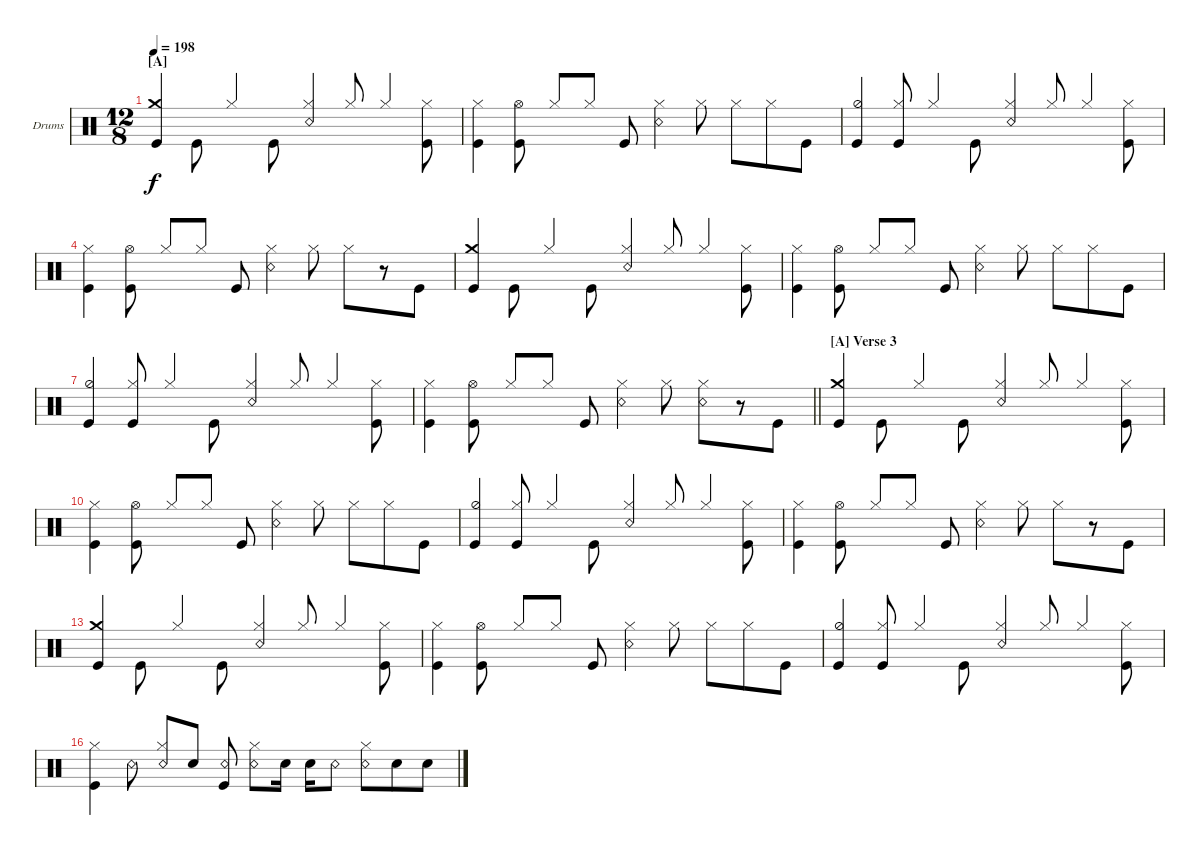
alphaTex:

\bracketExtendMode nobrackets
\firstSystemTrackNameOrientation horizontal
\otherSystemsTrackNameOrientation horizontal
\defaultBarNumberDisplay FirstOfSystem
\track ("Drumkit" "Drums") {instrument percussion}
\staff {score}
\articulation defaults
\ts (12 8)
\section ("A" "")
\tempo 198
\clef neutral
\scale
0.25
\ks c
("Kick (hit)" "Crash medium (hit)").4{dy f beam invert} "Kick (hit)".8{beam invert} "Hi-Hat (closed)".4 "Kick (hit)".8{beam invert} ("Snare (rim shot)" "Hi-Hat (closed)").4 "Hi-Hat (closed)".8{beam invert} "Hi-Hat (closed)".4{beam invert} ("Kick (hit)" "Hi-Hat (closed)").8 |
\scale
0.25 ("Kick (hit)" "Hi-Hat (closed)").4 ("Kick (hit)" "Hi-Hat (open)").8{beam split} "Hi-Hat (closed)".8 "Hi-Hat (closed)".8{beam invert beam split} "Kick (hit)".8 ("Snare (rim shot)" "Hi-Hat (closed)").4 "Hi-Hat (closed)".8{beam split} "Hi-Hat (closed)".8 "Hi-Hat (closed)".8 "Kick (hit)".8 |
\scale
0.25 ("Kick (hit)" "Hi-Hat (half)").4{beam invert} ("Kick (hit)" "Hi-Hat (closed)").8{beam invert} "Hi-Hat (closed)".4 "Kick (hit)".8{beam invert} ("Snare (rim shot)" "Hi-Hat (closed)").4 "Hi-Hat (closed)".8{beam invert} "Hi-Hat (closed)".4{beam invert} ("Kick (hit)" "Hi-Hat (closed)").8 |
\scale
0.25 ("Kick (hit)" "Hi-Hat (closed)").4 ("Kick (hit)" "Hi-Hat (open)").8{beam split} "Hi-Hat (closed)".8 "Hi-Hat (closed)".8{beam invert beam split} "Kick (hit)".8 ("Snare (rim shot)" "Hi-Hat (closed)").4 "Hi-Hat (closed)".8{beam split} "Hi-Hat (closed)".8 r.8 "Kick (hit)".8 |
\scale
0.25 ("Kick (hit)" "Crash medium (hit)").4{beam invert} "Kick (hit)".8{beam invert} "Hi-Hat (closed)".4 "Kick (hit)".8{beam invert} ("Snare (rim shot)" "Hi-Hat (closed)").4 "Hi-Hat (closed)".8{beam invert} "Hi-Hat (closed)".4{beam invert} ("Kick (hit)" "Hi-Hat (closed)").8 |
\scale
0.25 ("Kick (hit)" "Hi-Hat (closed)").4 ("Kick (hit)" "Hi-Hat (open)").8{beam split} "Hi-Hat (closed)".8 "Hi-Hat (closed)".8{beam invert beam split} "Kick (hit)".8 ("Snare (rim shot)" "Hi-Hat (closed)").4 "Hi-Hat (closed)".8{beam split} "Hi-Hat (closed)".8 "Hi-Hat (closed)".8 "Kick (hit)".8 |
\scale
0.25 ("Kick (hit)" "Hi-Hat (half)").4{beam invert} ("Kick (hit)" "Hi-Hat (closed)").8{beam invert} "Hi-Hat (closed)".4 "Kick (hit)".8{beam invert} ("Snare (rim shot)" "Hi-Hat (closed)").4 "Hi-Hat (closed)".8{beam invert} "Hi-Hat (closed)".4{beam invert} ("Kick (hit)" "Hi-Hat (closed)").8 |
\scale
0.25
\barLineRight lightlight
("Kick (hit)" "Hi-Hat (closed)").4 ("Kick (hit)" "Hi-Hat (open)").8{beam split} "Hi-Hat (closed)".8 "Hi-Hat (closed)".8{beam invert beam split} "Kick (hit)".8 ("Snare (rim shot)" "Hi-Hat (closed)").4 "Hi-Hat (closed)".8{beam split} ("Hi-Hat (closed)" "Snare (rim shot)").8 r.8 "Kick (hit)".8 |
\section ("A" "Verse 3")
("Kick (hit)" "Crash medium (hit)").4{beam invert} "Kick (hit)".8{beam invert} "Hi-Hat (closed)".4 "Kick (hit)".8{beam invert} ("Snare (rim shot)" "Hi-Hat (closed)").4 "Hi-Hat (closed)".8{beam invert} "Hi-Hat (closed)".4{beam invert} ("Kick (hit)" "Hi-Hat (closed)").8 |
("Kick (hit)" "Hi-Hat (closed)").4 ("Kick (hit)" "Hi-Hat (open)").8{beam split} "Hi-Hat (closed)".8 "Hi-Hat (closed)".8{beam invert beam split} "Kick (hit)".8 ("Snare (rim shot)" "Hi-Hat (closed)").4 "Hi-Hat (closed)".8{beam split} "Hi-Hat (closed)".8 "Hi-Hat (closed)".8 "Kick (hit)".8 |
("Kick (hit)" "Hi-Hat (half)").4{beam invert} ("Kick (hit)" "Hi-Hat (closed)").8{beam invert} "Hi-Hat (closed)".4 "Kick (hit)".8{beam invert} ("Snare (rim shot)" "Hi-Hat (closed)").4 "Hi-Hat (closed)".8{beam invert} "Hi-Hat (closed)".4{beam invert} ("Kick (hit)" "Hi-Hat (closed)").8 |
("Kick (hit)" "Hi-Hat (closed)").4 ("Kick (hit)" "Hi-Hat (open)").8{beam split} "Hi-Hat (closed)".8 "Hi-Hat (closed)".8{beam invert beam split} "Kick (hit)".8 ("Snare (rim shot)" "Hi-Hat (closed)").4 "Hi-Hat (closed)".8{beam split} "Hi-Hat (closed)".8 r.8 "Kick (hit)".8 |
("Kick (hit)" "Crash medium (hit)").4{beam invert} "Kick (hit)".8{beam invert} "Hi-Hat (closed)".4 "Kick (hit)".8{beam invert} ("Snare (rim shot)" "Hi-Hat (closed)").4 "Hi-Hat (closed)".8{beam invert} "Hi-Hat (closed)".4{beam invert} ("Kick (hit)" "Hi-Hat (closed)").8 |
("Kick (hit)" "Hi-Hat (closed)").4 ("Kick (hit)" "Hi-Hat (open)").8{beam split} "Hi-Hat (closed)".8 "Hi-Hat (closed)".8{beam invert beam split} "Kick (hit)".8 ("Snare (rim shot)" "Hi-Hat (closed)").4 "Hi-Hat (closed)".8{beam split} "Hi-Hat (closed)".8 "Hi-Hat (closed)".8 "Kick (hit)".8 |
("Kick (hit)" "Hi-Hat (half)").4{beam invert} ("Kick (hit)" "Hi-Hat (closed)").8{beam invert} "Hi-Hat (closed)".4 "Kick (hit)".8{beam invert} ("Snare (rim shot)" "Hi-Hat (closed)").4 "Hi-Hat (closed)".8{beam invert} "Hi-Hat (closed)".4{beam invert} ("Kick (hit)" "Hi-Hat (closed)").8 |
("Kick (hit)" "Hi-Hat (closed)").4 "Snare (rim shot)".8{beam split} ("Hi-Hat (closed)" "Snare (rim shot)").8 "Snare (hit) 2".8{beam invert beam split} ("Kick (hit)" "Snare (rim shot)").8 ("Snare (rim shot)" "Hi-Hat (closed)").8 "Snare (hit) 2".16{beam split} "Snare (hit) 2".16 "Snare (rim shot)".8 ("Snare (rim shot)" "Hi-Hat (closed)").8 "Snare (hit) 2".8 "Snare (hit) 2".8
